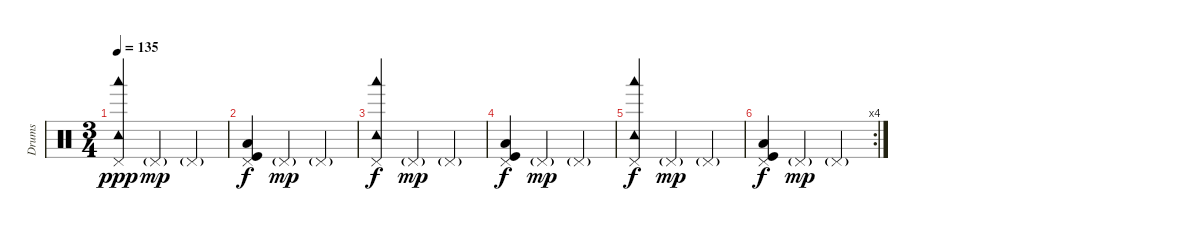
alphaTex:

\track ("Drums" "Drums") {instrument percussion}
\staff {score}
\articulation defaults
\ts (3 4)
\tempo 135
\clef neutral
\ks c
("Pedal Hi-Hat (hit)" "Woodblock low (hit)" "Tambourine (hit)").4{dy ppp} "Pedal Hi-Hat (hit)"{g}.4{dy mp} "Pedal Hi-Hat (hit)"{g}.4 |
("Pedal Hi-Hat (hit)" "Low Floor Tom (hit)" "Kick (hit)").4{dy f} "Pedal Hi-Hat (hit)"{g}.4{dy mp} "Pedal Hi-Hat (hit)"{g}.4 |
("Pedal Hi-Hat (hit)" "Woodblock low (hit)" "Tambourine (hit)").4{dy f} "Pedal Hi-Hat (hit)"{g}.4{dy mp} "Pedal Hi-Hat (hit)"{g}.4 |
("Pedal Hi-Hat (hit)" "Low Floor Tom (hit)" "Kick (hit)").4{dy f} "Pedal Hi-Hat (hit)"{g}.4{dy mp} "Pedal Hi-Hat (hit)"{g}.4 |
("Pedal Hi-Hat (hit)" "Woodblock low (hit)" "Tambourine (hit)").4{dy f} "Pedal Hi-Hat (hit)"{g}.4{dy mp} "Pedal Hi-Hat (hit)"{g}.4 |
\rc 4
("Pedal Hi-Hat (hit)" "Low Floor Tom (hit)" "Kick (hit)").4{dy f} "Pedal Hi-Hat (hit)"{g}.4{dy mp} "Pedal Hi-Hat (hit)"{g}.4
